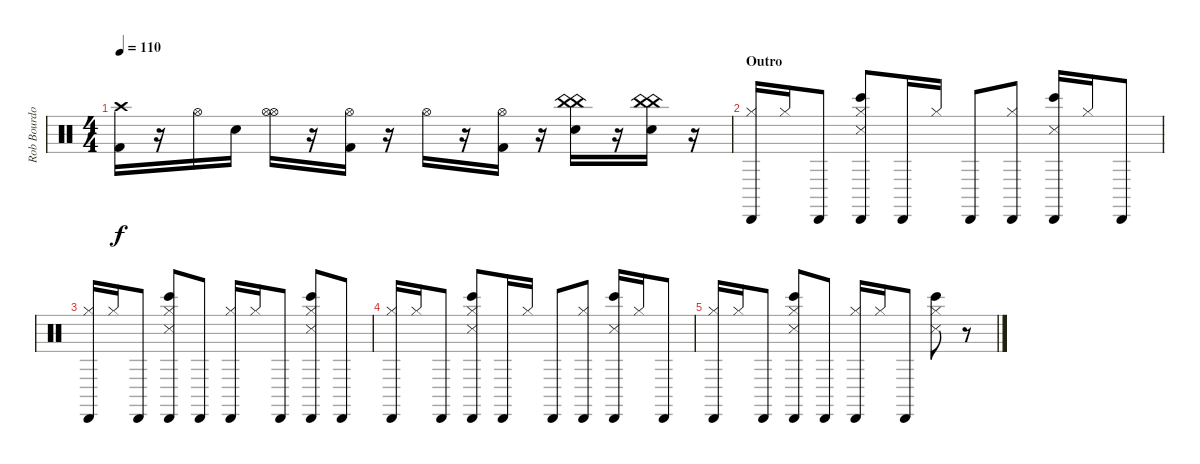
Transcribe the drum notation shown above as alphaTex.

\track ("Rob Bourdon (Drums)" "Rob Bourdo") {instrument percussion}
\staff {score}
\articulation defaults
\ts (4 4)
\tempo 110
\clef neutral
\ks c
("Crash high (hit)" "Kick (hit) 2").16{dy f} r.16 "Hi-Hat (open)".16 "Electric Snare (hit)".16 ("Hi-Hat (open)" "Hi-Hat (open)").16 r.16 ("Hi-Hat (open)" "Kick (hit) 2").16 r.16 "Hi-Hat (open)".16 r.16 ("Hi-Hat (open)" "Kick (hit) 2").16 r.16 ("China (hit)" "China (hit)" "Electric Snare (hit)").16 r.16 ("China (hit)" "China (hit)" "Electric Snare (hit)").16 r.16 |
\section ("" "Outro")
("Cabasa (hit)" "Hi-Hat (closed)").16 "Hi-Hat (closed)".16 "Cabasa (hit)".8 ("Hi-Hat (closed)" "Cabasa (hit)" "Snare (side stick) 3" "Bongo High (hit)").8 "Cabasa (hit)".16 "Hi-Hat (closed)".16 "Cabasa (hit)".8 ("Hi-Hat (closed)" "Cabasa (hit)").8 ("Cabasa (hit)" "Snare (side stick) 3" "Bongo High (hit)").16 "Hi-Hat (closed)".16 "Cabasa (hit)".8 |
("Cabasa (hit)" "Hi-Hat (closed)").16 "Hi-Hat (closed)".16 "Cabasa (hit)".8 ("Hi-Hat (closed)" "Cabasa (hit)" "Snare (side stick) 3" "Bongo High (hit)").8 "Cabasa (hit)".8 ("Hi-Hat (closed)" "Cabasa (hit)").16 "Hi-Hat (closed)".16 "Cabasa (hit)".8 ("Hi-Hat (closed)" "Cabasa (hit)" "Snare (side stick) 3" "Bongo High (hit)").8 "Cabasa (hit)".8 |
("Cabasa (hit)" "Hi-Hat (closed)").16 "Hi-Hat (closed)".16 "Cabasa (hit)".8 ("Hi-Hat (closed)" "Cabasa (hit)" "Snare (side stick) 3" "Bongo High (hit)").8 "Cabasa (hit)".16 "Hi-Hat (closed)".16 "Cabasa (hit)".8 ("Hi-Hat (closed)" "Cabasa (hit)").8 ("Cabasa (hit)" "Snare (side stick) 3" "Bongo High (hit)").16 "Hi-Hat (closed)".16 "Cabasa (hit)".8 |
("Cabasa (hit)" "Hi-Hat (closed)").16 "Hi-Hat (closed)".16 "Cabasa (hit)".8 ("Hi-Hat (closed)" "Cabasa (hit)" "Snare (side stick) 3" "Bongo High (hit)").8 "Cabasa (hit)".8 ("Hi-Hat (closed)" "Cabasa (hit)").16 "Hi-Hat (closed)".16 "Cabasa (hit)".8 ("Hi-Hat (closed)" "Snare (side stick) 3" "Bongo High (hit)").8 r.8
